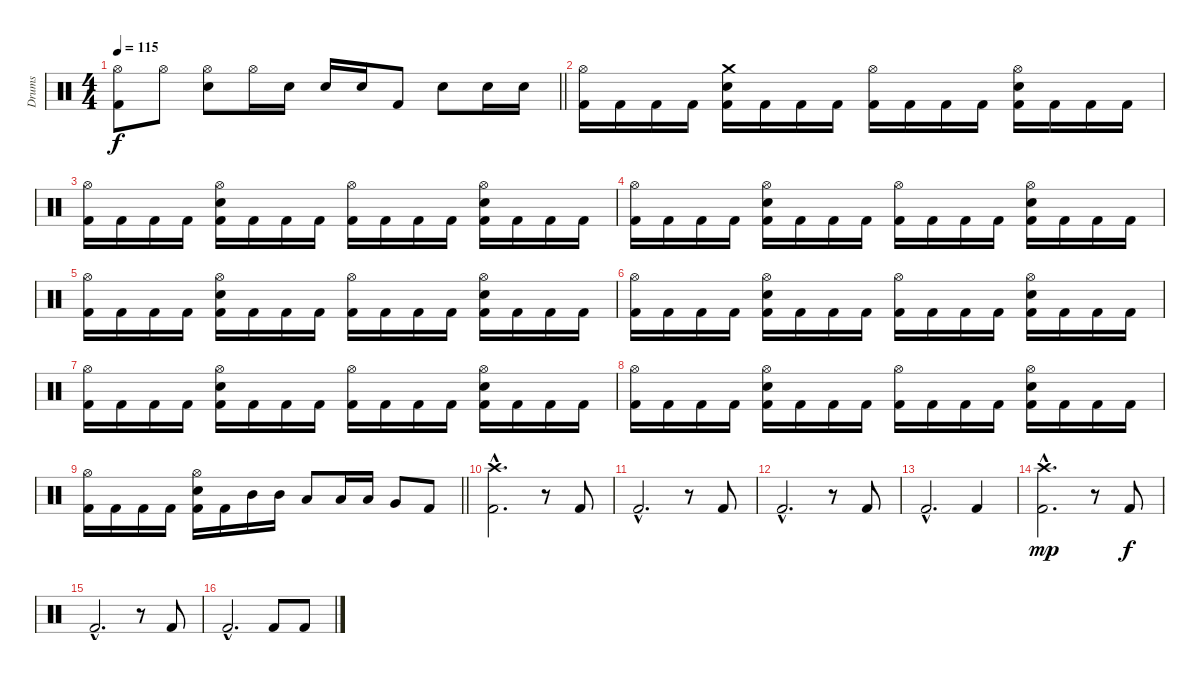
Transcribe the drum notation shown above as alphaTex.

\track ("Drums" "Drums") {instrument percussion}
\staff {score}
\articulation defaults
\ts (4 4)
\tempo 115
\clef neutral
\barLineRight lightlight
\ks c
("Hi-Hat (open)" "Kick (hit) 2").8{dy f} "Hi-Hat (open)".8 ("Hi-Hat (open)" "Electric Snare (hit)").8 "Hi-Hat (open)".16 "Electric Snare (hit)".16 "Electric Snare (hit)".16 "Electric Snare (hit)".16 "Kick (hit) 2".8 "Electric Snare (hit)".8 "Electric Snare (hit)".16 "Electric Snare (hit)".16 |
("Hi-Hat (open)" "Kick (hit) 2").16 "Kick (hit) 2".16 "Kick (hit) 2".16 "Kick (hit) 2".16 ("Crash medium (hit)" "Electric Snare (hit)" "Kick (hit) 2").16 "Kick (hit) 2".16 "Kick (hit) 2".16 "Kick (hit) 2".16 ("Hi-Hat (open)" "Kick (hit) 2").16 "Kick (hit) 2".16 "Kick (hit) 2".16 "Kick (hit) 2".16 ("Hi-Hat (open)" "Electric Snare (hit)" "Kick (hit) 2").16 "Kick (hit) 2".16 "Kick (hit) 2".16 "Kick (hit) 2".16 |
("Hi-Hat (open)" "Kick (hit) 2").16 "Kick (hit) 2".16 "Kick (hit) 2".16 "Kick (hit) 2".16 ("Hi-Hat (open)" "Electric Snare (hit)" "Kick (hit) 2").16 "Kick (hit) 2".16 "Kick (hit) 2".16 "Kick (hit) 2".16 ("Hi-Hat (open)" "Kick (hit) 2").16 "Kick (hit) 2".16 "Kick (hit) 2".16 "Kick (hit) 2".16 ("Hi-Hat (open)" "Electric Snare (hit)" "Kick (hit) 2").16 "Kick (hit) 2".16 "Kick (hit) 2".16 "Kick (hit) 2".16 |
("Hi-Hat (open)" "Kick (hit) 2").16 "Kick (hit) 2".16 "Kick (hit) 2".16 "Kick (hit) 2".16 ("Hi-Hat (open)" "Electric Snare (hit)" "Kick (hit) 2").16 "Kick (hit) 2".16 "Kick (hit) 2".16 "Kick (hit) 2".16 ("Hi-Hat (open)" "Kick (hit) 2").16 "Kick (hit) 2".16 "Kick (hit) 2".16 "Kick (hit) 2".16 ("Hi-Hat (open)" "Electric Snare (hit)" "Kick (hit) 2").16 "Kick (hit) 2".16 "Kick (hit) 2".16 "Kick (hit) 2".16 |
("Hi-Hat (open)" "Kick (hit) 2").16 "Kick (hit) 2".16 "Kick (hit) 2".16 "Kick (hit) 2".16 ("Hi-Hat (open)" "Electric Snare (hit)" "Kick (hit) 2").16 "Kick (hit) 2".16 "Kick (hit) 2".16 "Kick (hit) 2".16 ("Hi-Hat (open)" "Kick (hit) 2").16 "Kick (hit) 2".16 "Kick (hit) 2".16 "Kick (hit) 2".16 ("Hi-Hat (open)" "Electric Snare (hit)" "Kick (hit) 2").16 "Kick (hit) 2".16 "Kick (hit) 2".16 "Kick (hit) 2".16 |
("Hi-Hat (open)" "Kick (hit) 2").16 "Kick (hit) 2".16 "Kick (hit) 2".16 "Kick (hit) 2".16 ("Hi-Hat (open)" "Electric Snare (hit)" "Kick (hit) 2").16 "Kick (hit) 2".16 "Kick (hit) 2".16 "Kick (hit) 2".16 ("Hi-Hat (open)" "Kick (hit) 2").16 "Kick (hit) 2".16 "Kick (hit) 2".16 "Kick (hit) 2".16 ("Hi-Hat (open)" "Electric Snare (hit)" "Kick (hit) 2").16 "Kick (hit) 2".16 "Kick (hit) 2".16 "Kick (hit) 2".16 |
("Hi-Hat (open)" "Kick (hit) 2").16 "Kick (hit) 2".16 "Kick (hit) 2".16 "Kick (hit) 2".16 ("Hi-Hat (open)" "Electric Snare (hit)" "Kick (hit) 2").16 "Kick (hit) 2".16 "Kick (hit) 2".16 "Kick (hit) 2".16 ("Hi-Hat (open)" "Kick (hit) 2").16 "Kick (hit) 2".16 "Kick (hit) 2".16 "Kick (hit) 2".16 ("Hi-Hat (open)" "Electric Snare (hit)" "Kick (hit) 2").16 "Kick (hit) 2".16 "Kick (hit) 2".16 "Kick (hit) 2".16 |
("Hi-Hat (open)" "Kick (hit) 2").16 "Kick (hit) 2".16 "Kick (hit) 2".16 "Kick (hit) 2".16 ("Hi-Hat (open)" "Electric Snare (hit)" "Kick (hit) 2").16 "Kick (hit) 2".16 "Kick (hit) 2".16 "Kick (hit) 2".16 ("Hi-Hat (open)" "Kick (hit) 2").16 "Kick (hit) 2".16 "Kick (hit) 2".16 "Kick (hit) 2".16 ("Hi-Hat (open)" "Electric Snare (hit)" "Kick (hit) 2").16 "Kick (hit) 2".16 "Kick (hit) 2".16 "Kick (hit) 2".16 |
\barLineRight lightlight
("Hi-Hat (open)" "Kick (hit) 2").16 "Kick (hit) 2".16 "Kick (hit) 2".16 "Kick (hit) 2".16 ("Hi-Hat (open)" "Electric Snare (hit)" "Kick (hit) 2").16 "Kick (hit) 2".16 "Mid Tom (hit)".16 "Mid Tom (hit)".16 "Low Tom (hit)".8 "Low Tom (hit)".16 "Low Tom (hit)".16 "Very Low Tom (hit)".8 "Kick (hit) 2".8 |
("Crash high (hit)"{hac} "Kick (hit) 2"{hac}).2{d} r.8 "Kick (hit) 2".8 |
"Kick (hit) 2"{hac}.2{d} r.8 "Kick (hit) 2".8 |
"Kick (hit) 2"{hac}.2{d} r.8 "Kick (hit) 2".8 |
"Kick (hit) 2"{hac}.2{d} "Kick (hit) 2".4 |
("Crash high (hit)"{hac} "Kick (hit) 2"{hac}).2{d dy mp} r.8 "Kick (hit) 2".8{dy f} |
"Kick (hit) 2"{hac}.2{d} r.8 "Kick (hit) 2".8 |
"Kick (hit) 2"{hac}.2{d} "Kick (hit) 2".8 "Kick (hit) 2".8
